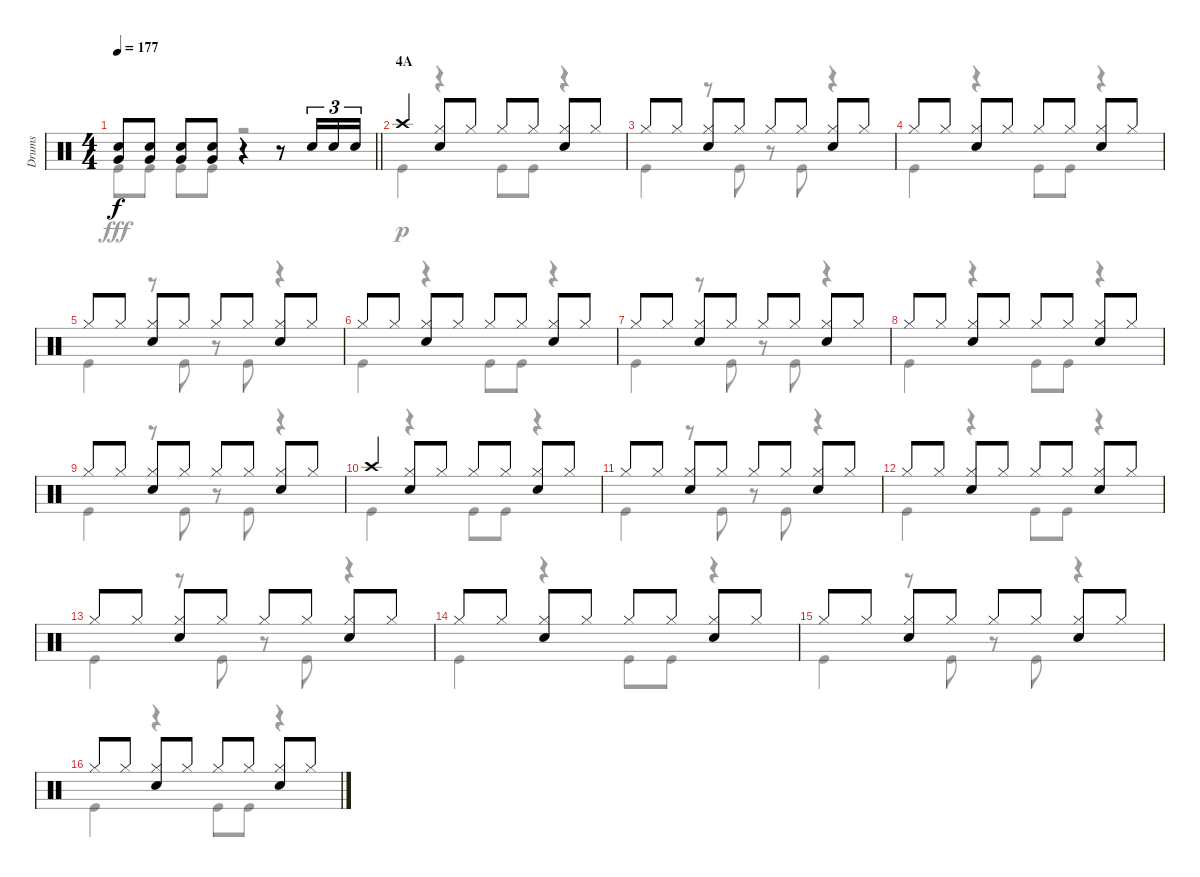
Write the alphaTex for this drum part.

\track ("Drums" "Drums") {instrument percussion}
\staff {score}
\articulation defaults
\voice
\ts (4 4)
\tempo 177
\clef neutral
\barLineRight lightlight
\ks c
("Very Low Tom (hit)" "Snare (hit) 2").8{dy f} ("Very Low Tom (hit)" "Snare (hit) 2").8 ("Very Low Tom (hit)" "Snare (hit) 2").8 ("Very Low Tom (hit)" "Snare (hit) 2").8 r.4 r.8 "Snare (hit) 2".16{tu (3 2)} "Snare (hit) 2".16{tu (3 2)} "Snare (hit) 2".16{tu (3 2)} |
\section ("" "4A")
"Crash high (hit)".4 ("Hi-Hat (closed)" "Snare (hit) 2").8 "Hi-Hat (closed)".8 "Hi-Hat (closed)".8 "Hi-Hat (closed)".8 ("Hi-Hat (closed)" "Snare (hit) 2").8 "Hi-Hat (closed)".8 |
"Hi-Hat (closed)".8 "Hi-Hat (closed)".8 ("Hi-Hat (closed)" "Snare (hit) 2").8 "Hi-Hat (closed)".8 "Hi-Hat (closed)".8 "Hi-Hat (closed)".8 ("Hi-Hat (closed)" "Snare (hit) 2").8 "Hi-Hat (closed)".8 |
"Hi-Hat (closed)".8 "Hi-Hat (closed)".8 ("Hi-Hat (closed)" "Snare (hit) 2").8 "Hi-Hat (closed)".8 "Hi-Hat (closed)".8 "Hi-Hat (closed)".8 ("Hi-Hat (closed)" "Snare (hit) 2").8 "Hi-Hat (closed)".8 |
"Hi-Hat (closed)".8 "Hi-Hat (closed)".8 ("Hi-Hat (closed)" "Snare (hit) 2").8 "Hi-Hat (closed)".8 "Hi-Hat (closed)".8 "Hi-Hat (closed)".8 ("Hi-Hat (closed)" "Snare (hit) 2").8 "Hi-Hat (closed)".8 |
"Hi-Hat (closed)".8 "Hi-Hat (closed)".8 ("Hi-Hat (closed)" "Snare (hit) 2").8 "Hi-Hat (closed)".8 "Hi-Hat (closed)".8 "Hi-Hat (closed)".8 ("Hi-Hat (closed)" "Snare (hit) 2").8 "Hi-Hat (closed)".8 |
"Hi-Hat (closed)".8 "Hi-Hat (closed)".8 ("Hi-Hat (closed)" "Snare (hit) 2").8 "Hi-Hat (closed)".8 "Hi-Hat (closed)".8 "Hi-Hat (closed)".8 ("Hi-Hat (closed)" "Snare (hit) 2").8 "Hi-Hat (closed)".8 |
"Hi-Hat (closed)".8 "Hi-Hat (closed)".8 ("Hi-Hat (closed)" "Snare (hit) 2").8 "Hi-Hat (closed)".8 "Hi-Hat (closed)".8 "Hi-Hat (closed)".8 ("Hi-Hat (closed)" "Snare (hit) 2").8 "Hi-Hat (closed)".8 |
"Hi-Hat (closed)".8 "Hi-Hat (closed)".8 ("Hi-Hat (closed)" "Snare (hit) 2").8 "Hi-Hat (closed)".8 "Hi-Hat (closed)".8 "Hi-Hat (closed)".8 ("Hi-Hat (closed)" "Snare (hit) 2").8 "Hi-Hat (closed)".8 |
"Crash high (hit)".4 ("Hi-Hat (closed)" "Snare (hit) 2").8 "Hi-Hat (closed)".8 "Hi-Hat (closed)".8 "Hi-Hat (closed)".8 ("Hi-Hat (closed)" "Snare (hit) 2").8 "Hi-Hat (closed)".8 |
"Hi-Hat (closed)".8 "Hi-Hat (closed)".8 ("Hi-Hat (closed)" "Snare (hit) 2").8 "Hi-Hat (closed)".8 "Hi-Hat (closed)".8 "Hi-Hat (closed)".8 ("Hi-Hat (closed)" "Snare (hit) 2").8 "Hi-Hat (closed)".8 |
"Hi-Hat (closed)".8 "Hi-Hat (closed)".8 ("Hi-Hat (closed)" "Snare (hit) 2").8 "Hi-Hat (closed)".8 "Hi-Hat (closed)".8 "Hi-Hat (closed)".8 ("Hi-Hat (closed)" "Snare (hit) 2").8 "Hi-Hat (closed)".8 |
"Hi-Hat (closed)".8 "Hi-Hat (closed)".8 ("Hi-Hat (closed)" "Snare (hit) 2").8 "Hi-Hat (closed)".8 "Hi-Hat (closed)".8 "Hi-Hat (closed)".8 ("Hi-Hat (closed)" "Snare (hit) 2").8 "Hi-Hat (closed)".8 |
"Hi-Hat (closed)".8 "Hi-Hat (closed)".8 ("Hi-Hat (closed)" "Snare (hit) 2").8 "Hi-Hat (closed)".8 "Hi-Hat (closed)".8 "Hi-Hat (closed)".8 ("Hi-Hat (closed)" "Snare (hit) 2").8 "Hi-Hat (closed)".8 |
"Hi-Hat (closed)".8 "Hi-Hat (closed)".8 ("Hi-Hat (closed)" "Snare (hit) 2").8 "Hi-Hat (closed)".8 "Hi-Hat (closed)".8 "Hi-Hat (closed)".8 ("Hi-Hat (closed)" "Snare (hit) 2").8 "Hi-Hat (closed)".8 |
"Hi-Hat (closed)".8 "Hi-Hat (closed)".8 ("Hi-Hat (closed)" "Snare (hit) 2").8 "Hi-Hat (closed)".8 "Hi-Hat (closed)".8 "Hi-Hat (closed)".8 ("Hi-Hat (closed)" "Snare (hit) 2").8 "Hi-Hat (closed)".8
\voice
\clef neutral
\ottava regular
\simile none
\barLineRight lightlight
\ks c "Kick (hit)".8{dy fff} "Kick (hit)".8 "Kick (hit)".8 "Kick (hit)".8
r.2 |
"Kick (hit)".4{dy p} r.4 "Kick (hit)".8 "Kick (hit)".8 r.4 |
"Kick (hit)".4 r.8 "Kick (hit)".8 r.8 "Kick (hit)".8 r.4 |
"Kick (hit)".4 r.4 "Kick (hit)".8 "Kick (hit)".8 r.4 |
"Kick (hit)".4 r.8 "Kick (hit)".8 r.8 "Kick (hit)".8 r.4 |
"Kick (hit)".4 r.4 "Kick (hit)".8 "Kick (hit)".8 r.4 |
"Kick (hit)".4 r.8 "Kick (hit)".8 r.8 "Kick (hit)".8 r.4 |
"Kick (hit)".4 r.4 "Kick (hit)".8 "Kick (hit)".8 r.4 |
"Kick (hit)".4 r.8 "Kick (hit)".8 r.8 "Kick (hit)".8 r.4 |
"Kick (hit)".4 r.4 "Kick (hit)".8 "Kick (hit)".8 r.4 |
"Kick (hit)".4 r.8 "Kick (hit)".8 r.8 "Kick (hit)".8 r.4 |
"Kick (hit)".4 r.4 "Kick (hit)".8 "Kick (hit)".8 r.4 |
"Kick (hit)".4 r.8 "Kick (hit)".8 r.8 "Kick (hit)".8 r.4 |
"Kick (hit)".4 r.4 "Kick (hit)".8 "Kick (hit)".8 r.4 |
"Kick (hit)".4 r.8 "Kick (hit)".8 r.8 "Kick (hit)".8 r.4 |
"Kick (hit)".4 r.4 "Kick (hit)".8 "Kick (hit)".8 r.4
